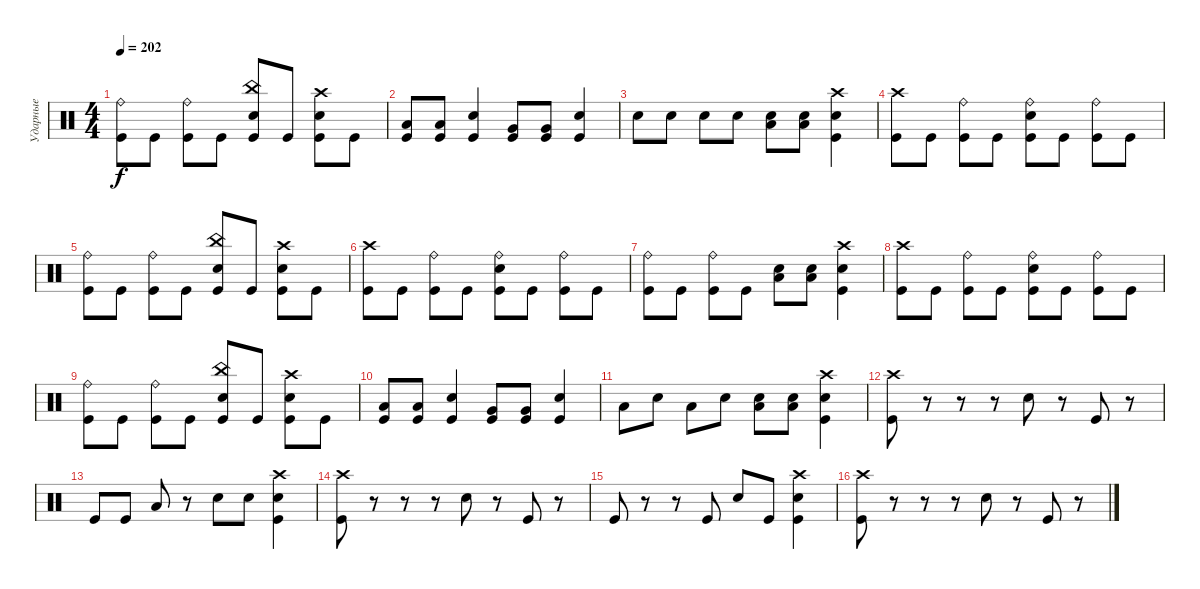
\track ("Ударные" "Ударные") {instrument percussion}
\staff {score}
\articulation defaults
\ts (4 4)
\tempo 202
\clef neutral
\ks c
("Ride (bell)" "Kick (hit)").8{dy f} "Kick (hit)".8 ("Ride (bell)" "Kick (hit)").8 "Kick (hit)".8 ("China (hit)" "Electric Snare (hit)" "Kick (hit)").8 "Kick (hit)".8 ("Crash high (hit)" "Electric Snare (hit)" "Kick (hit)").8 "Kick (hit)".8 |
("Low Tom (hit)" "Kick (hit)").8 ("Low Tom (hit)" "Kick (hit)").8 ("Electric Snare (hit)" "Kick (hit)").4 ("Very Low Tom (hit)" "Kick (hit)").8 ("Very Low Tom (hit)" "Kick (hit)").8 ("Electric Snare (hit)" "Kick (hit)").4 |
"Electric Snare (hit)".8 "Electric Snare (hit)".8 "Electric Snare (hit)".8 "Electric Snare (hit)".8 ("Low Tom (hit)" "Electric Snare (hit)").8 ("Low Tom (hit)" "Electric Snare (hit)").8 ("Crash high (hit)" "Electric Snare (hit)" "Kick (hit)").4 |
("Crash high (hit)" "Kick (hit)").8 "Kick (hit)".8 ("Ride (bell)" "Kick (hit)").8 "Kick (hit)".8 ("Ride (bell)" "Electric Snare (hit)" "Kick (hit)").8 "Kick (hit)".8 ("Ride (bell)" "Kick (hit)").8 "Kick (hit)".8 |
("Ride (bell)" "Kick (hit)").8 "Kick (hit)".8 ("Ride (bell)" "Kick (hit)").8 "Kick (hit)".8 ("China (hit)" "Electric Snare (hit)" "Kick (hit)").8 "Kick (hit)".8 ("Crash high (hit)" "Electric Snare (hit)" "Kick (hit)").8 "Kick (hit)".8 |
("Crash high (hit)" "Kick (hit)").8 "Kick (hit)".8 ("Ride (bell)" "Kick (hit)").8 "Kick (hit)".8 ("Ride (bell)" "Electric Snare (hit)" "Kick (hit)").8 "Kick (hit)".8 ("Ride (bell)" "Kick (hit)").8 "Kick (hit)".8 |
("Ride (bell)" "Kick (hit)").8 "Kick (hit)".8 ("Ride (bell)" "Kick (hit)").8 "Kick (hit)".8 ("Low Tom (hit)" "Electric Snare (hit)").8 ("Low Tom (hit)" "Electric Snare (hit)").8 ("Crash high (hit)" "Electric Snare (hit)" "Kick (hit)").4 |
("Crash high (hit)" "Kick (hit)").8 "Kick (hit)".8 ("Ride (bell)" "Kick (hit)").8 "Kick (hit)".8 ("Ride (bell)" "Electric Snare (hit)" "Kick (hit)").8 "Kick (hit)".8 ("Ride (bell)" "Kick (hit)").8 "Kick (hit)".8 |
("Ride (bell)" "Kick (hit)").8 "Kick (hit)".8 ("Ride (bell)" "Kick (hit)").8 "Kick (hit)".8 ("China (hit)" "Electric Snare (hit)" "Kick (hit)").8 "Kick (hit)".8 ("Crash high (hit)" "Electric Snare (hit)" "Kick (hit)").8 "Kick (hit)".8 |
("Low Tom (hit)" "Kick (hit)").8 ("Low Tom (hit)" "Kick (hit)").8 ("Electric Snare (hit)" "Kick (hit)").4 ("Very Low Tom (hit)" "Kick (hit)").8 ("Very Low Tom (hit)" "Kick (hit)").8 ("Electric Snare (hit)" "Kick (hit)").4 |
"Low Tom (hit)".8 "Electric Snare (hit)".8 "Low Tom (hit)".8 "Electric Snare (hit)".8 ("Low Tom (hit)" "Electric Snare (hit)").8 ("Low Tom (hit)" "Electric Snare (hit)").8 ("Crash high (hit)" "Electric Snare (hit)" "Kick (hit)").4 |
("Crash high (hit)" "Kick (hit)").8 r.8 r.8 r.8 "Electric Snare (hit)".8 r.8 "Kick (hit)".8 r.8 |
"Kick (hit)".8 "Kick (hit)".8 "Low Tom (hit)".8 r.8 "Electric Snare (hit)".8 "Electric Snare (hit)".8 ("Crash high (hit)" "Electric Snare (hit)" "Kick (hit)").4 |
("Crash high (hit)" "Kick (hit)").8 r.8 r.8 r.8 "Electric Snare (hit)".8 r.8 "Kick (hit)".8 r.8 |
"Kick (hit)".8 r.8 r.8 "Kick (hit)".8 "Electric Snare (hit)".8 "Kick (hit)".8 ("Crash high (hit)" "Electric Snare (hit)" "Kick (hit)").4 |
("Crash high (hit)" "Kick (hit)").8 r.8 r.8 r.8 "Electric Snare (hit)".8 r.8 "Kick (hit)".8 r.8
